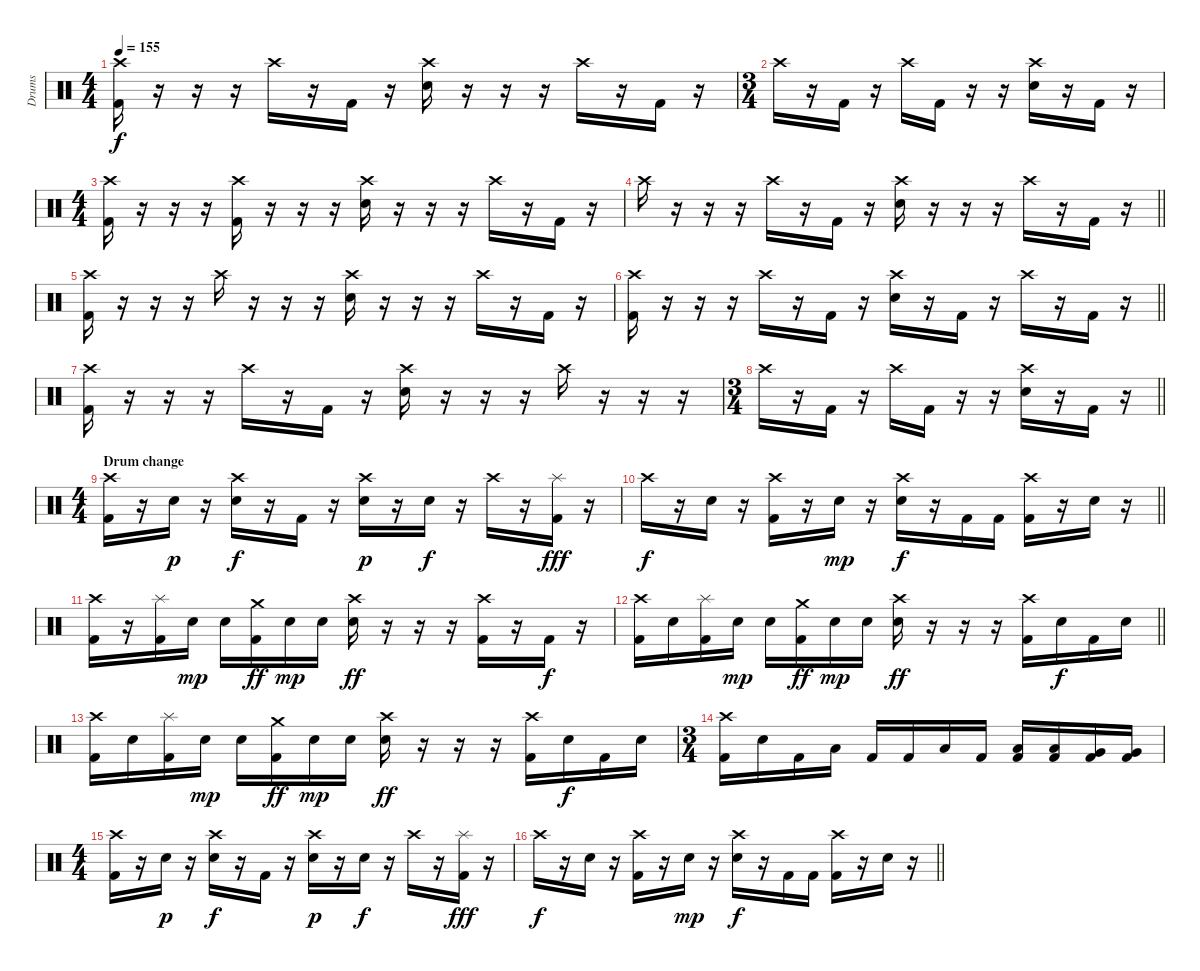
\track ("Drums" "Drums") {instrument percussion}
\staff {score}
\articulation defaults
\ts (4 4)
\tempo 155
\clef neutral
\ks c
("Crash high (hit)" "Kick (hit) 2").16{dy f} r.16 r.16 r.16 "Crash high (hit)".16 r.16 "Kick (hit) 2".16 r.16 ("Crash high (hit)" "Electric Snare (hit)").16 r.16 r.16 r.16 "Crash high (hit)".16 r.16 "Kick (hit) 2".16 r.16 |
\ts (3 4)
"Crash high (hit)".16 r.16 "Kick (hit) 2".16 r.16 "Crash high (hit)".16 "Kick (hit) 2".16 r.16 r.16 ("Crash high (hit)" "Electric Snare (hit)").16 r.16 "Kick (hit) 2".16 r.16 |
\ts (4 4)
("Crash high (hit)" "Kick (hit) 2").16 r.16 r.16 r.16 ("Crash high (hit)" "Kick (hit) 2").16 r.16 r.16 r.16 ("Crash high (hit)" "Electric Snare (hit)").16 r.16 r.16 r.16 "Crash high (hit)".16 r.16 "Kick (hit) 2".16 r.16 |
\barLineRight lightlight "Crash high (hit)".16
r.16 r.16 r.16 "Crash high (hit)".16 r.16 "Kick (hit) 2".16 r.16 ("Crash high (hit)" "Electric Snare (hit)").16 r.16 r.16 r.16 "Crash high (hit)".16 r.16 "Kick (hit) 2".16 r.16 |
("Crash high (hit)" "Kick (hit) 2").16 r.16 r.16 r.16 "Crash high (hit)".16 r.16 r.16 r.16 ("Crash high (hit)" "Electric Snare (hit)").16 r.16 r.16 r.16 "Crash high (hit)".16 r.16 "Kick (hit) 2".16 r.16 |
\barLineRight lightlight
("Crash high (hit)" "Kick (hit) 2").16 r.16 r.16 r.16 "Crash high (hit)".16 r.16 "Kick (hit) 2".16 r.16 ("Crash high (hit)" "Electric Snare (hit)").16 r.16 "Kick (hit) 2".16 r.16 "Crash high (hit)".16 r.16 "Kick (hit) 2".16 r.16 |
("Crash high (hit)" "Kick (hit) 2").16 r.16 r.16 r.16 "Crash high (hit)".16 r.16 "Kick (hit) 2".16 r.16 ("Crash high (hit)" "Electric Snare (hit)").16 r.16 r.16 r.16 "Crash high (hit)".16 r.16 r.16 r.16 |
\ts (3 4)
\barLineRight lightlight "Crash high (hit)".16
r.16 "Kick (hit) 2".16 r.16 "Crash high (hit)".16 "Kick (hit) 2".16 r.16 r.16 ("Crash high (hit)" "Electric Snare (hit)").16 r.16 "Kick (hit) 2".16 r.16 |
\ts (4 4)
\section ("" "Drum change")
("Crash high (hit)" "Kick (hit) 2").16 r.16 "Electric Snare (hit)".16{dy p} r.16 ("Crash high (hit)" "Electric Snare (hit)").16{dy f} r.16 "Kick (hit) 2".16 r.16 ("Crash high (hit)" "Electric Snare (hit)").16{dy p} r.16 "Electric Snare (hit)".16{dy f} r.16 "Crash high (hit)".16 r.16 ("Splash (hit)" "Kick (hit) 2").16{dy fff} r.16 |
\barLineRight lightlight "Crash high (hit)".16{dy f}
r.16 "Electric Snare (hit)".16 r.16 ("Crash high (hit)" "Kick (hit) 2").16 r.16 "Electric Snare (hit)".16{dy mp} r.16 ("Crash high (hit)" "Electric Snare (hit)").16{dy f} r.16 "Kick (hit) 2".16 "Kick (hit) 2".16 ("Crash high (hit)" "Kick (hit) 2").16 r.16 "Electric Snare (hit)".16 r.16 |
("Crash high (hit)" "Kick (hit) 2").16 r.16 ("Splash (hit)" "Kick (hit) 2").16 "Electric Snare (hit)".16{dy mp} "Electric Snare (hit)".16 ("Crash medium (hit)" "Kick (hit) 2").16{dy ff} "Electric Snare (hit)".16{dy mp} "Electric Snare (hit)".16 ("Crash high (hit)" "Electric Snare (hit)").16{dy ff} r.16 r.16 r.16 ("Crash high (hit)" "Kick (hit) 2").16 r.16 "Kick (hit) 2".16{dy f} r.16 |
\barLineRight lightlight
("Crash high (hit)" "Kick (hit) 2").16 "Electric Snare (hit)".16 ("Splash (hit)" "Kick (hit) 2").16 "Electric Snare (hit)".16{dy mp} "Electric Snare (hit)".16 ("Crash medium (hit)" "Kick (hit) 2").16{dy ff} "Electric Snare (hit)".16{dy mp} "Electric Snare (hit)".16 ("Crash high (hit)" "Electric Snare (hit)").16{dy ff} r.16 r.16 r.16 ("Crash high (hit)" "Kick (hit) 2").16 "Electric Snare (hit)".16{dy f} "Kick (hit) 2".16 "Electric Snare (hit)".16 |
("Crash high (hit)" "Kick (hit) 2").16 "Electric Snare (hit)".16 ("Splash (hit)" "Kick (hit) 2").16 "Electric Snare (hit)".16{dy mp} "Electric Snare (hit)".16 ("Crash medium (hit)" "Kick (hit) 2").16{dy ff} "Electric Snare (hit)".16{dy mp} "Electric Snare (hit)".16 ("Crash high (hit)" "Electric Snare (hit)").16{dy ff} r.16 r.16 r.16 ("Crash high (hit)" "Kick (hit) 2").16 "Electric Snare (hit)".16{dy f} "Kick (hit) 2".16 "Electric Snare (hit)".16 |
\ts (3 4)
("Crash high (hit)" "Kick (hit) 2").16 "Electric Snare (hit)".16 "Kick (hit) 2".16 "Low Tom (hit)".16 "Kick (hit) 2".16 "Kick (hit) 2".16 "Low Tom (hit)".16 "Kick (hit) 2".16 ("Low Tom (hit)" "Kick (hit) 2").16 ("Low Tom (hit)" "Kick (hit) 2").16 ("Very Low Tom (hit)" "Kick (hit) 2").16 ("Very Low Tom (hit)" "Kick (hit) 2").16 |
\ts (4 4)
("Crash high (hit)" "Kick (hit) 2").16 r.16 "Electric Snare (hit)".16{dy p} r.16 ("Crash high (hit)" "Electric Snare (hit)").16{dy f} r.16 "Kick (hit) 2".16 r.16 ("Crash high (hit)" "Electric Snare (hit)").16{dy p} r.16 "Electric Snare (hit)".16{dy f} r.16 "Crash high (hit)".16 r.16 ("Splash (hit)" "Kick (hit) 2").16{dy fff} r.16 |
\barLineRight lightlight "Crash high (hit)".16{dy f}
r.16 "Electric Snare (hit)".16 r.16 ("Crash high (hit)" "Kick (hit) 2").16 r.16 "Electric Snare (hit)".16{dy mp} r.16 ("Crash high (hit)" "Electric Snare (hit)").16{dy f} r.16 "Kick (hit) 2".16 "Kick (hit) 2".16 ("Crash high (hit)" "Kick (hit) 2").16 r.16 "Electric Snare (hit)".16 r.16
